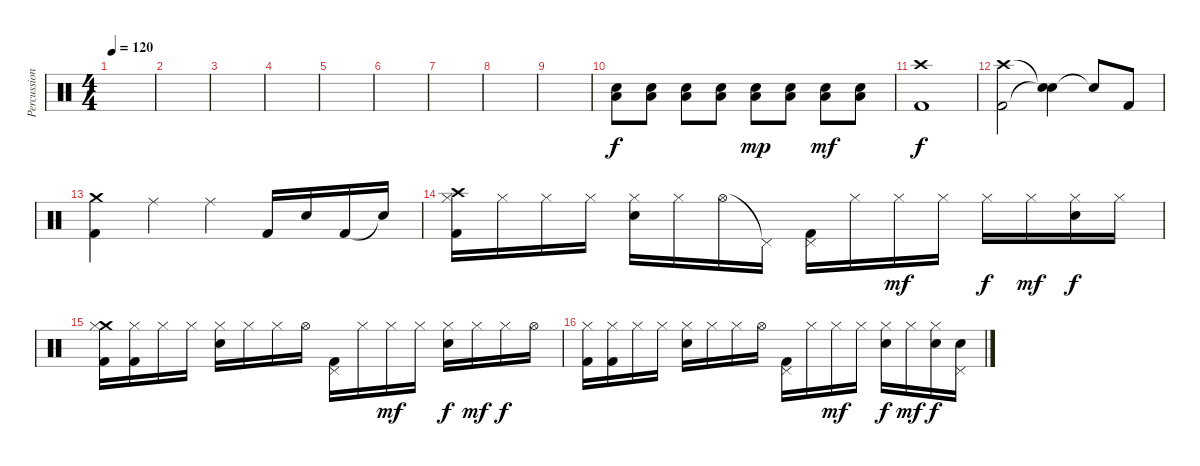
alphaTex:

\track ("Percussioni" "Percussion") {instrument percussion}
\staff {score}
\articulation defaults
\ts (4 4)
\tempo 120
\clef neutral
\ks c
|
|
|
|
|
|
|
|
|
("Low Tom (hit)" "Metronome (bell)").8 ("Low Tom (hit)" "Metronome (bell)").8 ("Low Tom (hit)" "Metronome (bell)").8 ("Low Tom (hit)" "Metronome (bell)").8 ("Low Tom (hit)" "Metronome (bell)").8{dy mp} ("Low Tom (hit)" "Metronome (bell)").8 ("Low Tom (hit)" "Metronome (bell)").8{dy mf} ("Low Tom (hit)" "Metronome (bell)").8 |
("Crash high (hit)" "Kick (hit) 2").1{dy f} |
("Crash high (hit)" "Kick (hit) 2").2 ("Snare (hit)"{t} "Snare (hit)"{t}).4 "Snare (hit)"{t}.8 "Kick (hit) 2".8 |
("Crash medium (hit)" "Kick (hit) 2").4 "Ride (middle)".4 "Ride (middle)".4 "Kick (hit) 2".16 "Metronome (bell)".16 "Kick (hit) 2".16 "Snare (hit)"{t}.16 |
("Crash high (hit)" "Hi-Hat (closed)" "Kick (hit) 2").16 "Hi-Hat (closed)".16 "Hi-Hat (closed)".16 "Hi-Hat (closed)".16 ("Hi-Hat (closed)" "Metronome (bell)").16 "Hi-Hat (closed)".16 "Hi-Hat (open)".16 "Pedal Hi-Hat (hit)"{t}.16 ("Pedal Hi-Hat (hit)" "Kick (hit) 2").16 "Hi-Hat (closed)".16 "Hi-Hat (closed)".16{dy mf} "Hi-Hat (closed)".16 "Hi-Hat (closed)".16{dy f} "Hi-Hat (closed)".16{dy mf} ("Hi-Hat (closed)" "Metronome (bell)").16{dy f} "Hi-Hat (closed)".16 |
("Crash medium (hit)" "Hi-Hat (closed)" "Kick (hit) 2").16 ("Hi-Hat (closed)" "Kick (hit) 2").16 "Hi-Hat (closed)".16 "Hi-Hat (closed)".16 ("Hi-Hat (closed)" "Metronome (bell)").16 "Hi-Hat (closed)".16 "Hi-Hat (closed)".16 "Hi-Hat (open)".16 ("Pedal Hi-Hat (hit)" "Kick (hit) 2").16 "Hi-Hat (closed)".16 "Hi-Hat (closed)".16{dy mf} "Hi-Hat (closed)".16 ("Hi-Hat (closed)" "Metronome (bell)").16{dy f} "Hi-Hat (closed)".16{dy mf} "Hi-Hat (closed)".16{dy f} "Hi-Hat (open)".16 |
("Hi-Hat (closed)" "Kick (hit) 2").16 ("Hi-Hat (closed)" "Kick (hit) 2").16 "Hi-Hat (closed)".16 "Hi-Hat (closed)".16 ("Hi-Hat (closed)" "Metronome (bell)").16 "Hi-Hat (closed)".16 "Hi-Hat (closed)".16 "Hi-Hat (open)".16 ("Pedal Hi-Hat (hit)" "Kick (hit) 2").16 "Hi-Hat (closed)".16 "Hi-Hat (closed)".16{dy mf} "Hi-Hat (closed)".16 ("Hi-Hat (closed)" "Metronome (bell)").16{dy f} "Hi-Hat (closed)".16{dy mf} ("Hi-Hat (closed)" "Metronome (bell)").16{dy f} ("Pedal Hi-Hat (hit)" "Metronome (bell)").16
